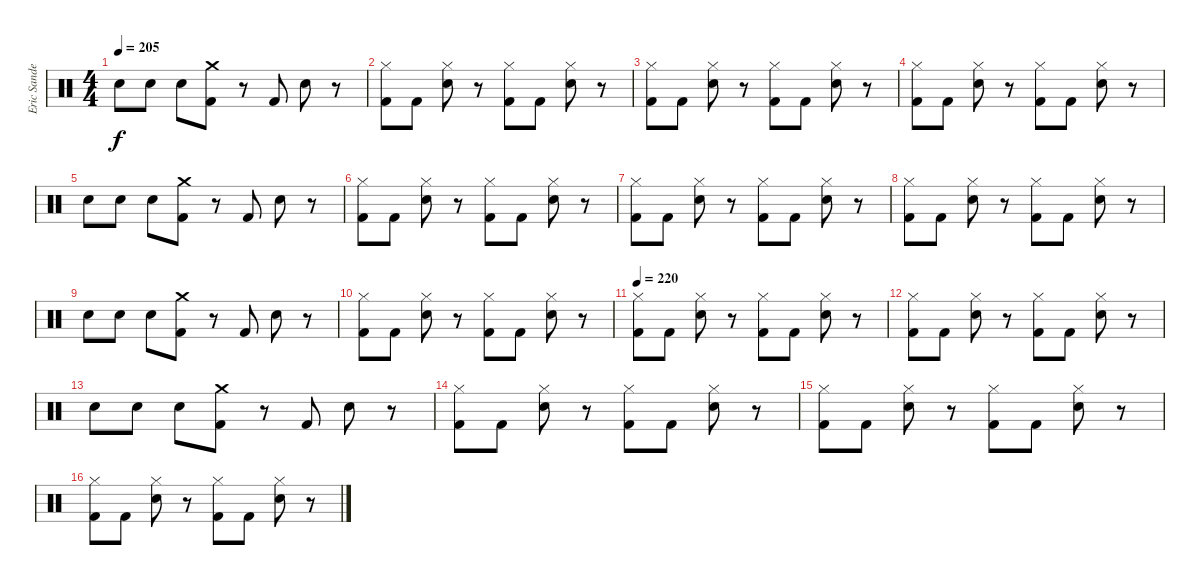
\track ("Eric Sanden" "Eric Sande") {instrument percussion}
\staff {score}
\articulation defaults
\ts (4 4)
\tempo 205
\tempo 220
\tempo 205
\clef neutral
\ks c "Snare (hit) 2".8{dy f} "Snare (hit) 2".8 "Snare (hit) 2".8
("Crash medium (hit)" "Kick (hit) 2").8 r.8 "Kick (hit) 2".8 "Snare (hit) 2".8 r.8 |
("Hi-Hat (closed)" "Kick (hit) 2").8 "Kick (hit) 2".8 ("Hi-Hat (closed)" "Snare (hit) 2").8 r.8 ("Hi-Hat (closed)" "Kick (hit) 2").8 "Kick (hit) 2".8 ("Hi-Hat (closed)" "Snare (hit) 2").8 r.8 |
("Hi-Hat (closed)" "Kick (hit) 2").8 "Kick (hit) 2".8 ("Hi-Hat (closed)" "Snare (hit) 2").8 r.8 ("Hi-Hat (closed)" "Kick (hit) 2").8 "Kick (hit) 2".8 ("Hi-Hat (closed)" "Snare (hit) 2").8 r.8 |
("Hi-Hat (closed)" "Kick (hit) 2").8 "Kick (hit) 2".8 ("Hi-Hat (closed)" "Snare (hit) 2").8 r.8 ("Hi-Hat (closed)" "Kick (hit) 2").8 "Kick (hit) 2".8 ("Hi-Hat (closed)" "Snare (hit) 2").8 r.8 |
"Snare (hit) 2".8 "Snare (hit) 2".8 "Snare (hit) 2".8 ("Crash medium (hit)" "Kick (hit) 2").8 r.8 "Kick (hit) 2".8 "Snare (hit) 2".8 r.8 |
("Hi-Hat (closed)" "Kick (hit) 2").8 "Kick (hit) 2".8 ("Hi-Hat (closed)" "Snare (hit) 2").8 r.8 ("Hi-Hat (closed)" "Kick (hit) 2").8 "Kick (hit) 2".8 ("Hi-Hat (closed)" "Snare (hit) 2").8 r.8 |
("Hi-Hat (closed)" "Kick (hit) 2").8 "Kick (hit) 2".8 ("Hi-Hat (closed)" "Snare (hit) 2").8 r.8 ("Hi-Hat (closed)" "Kick (hit) 2").8 "Kick (hit) 2".8 ("Hi-Hat (closed)" "Snare (hit) 2").8 r.8 |
("Hi-Hat (closed)" "Kick (hit) 2").8 "Kick (hit) 2".8 ("Hi-Hat (closed)" "Snare (hit) 2").8 r.8 ("Hi-Hat (closed)" "Kick (hit) 2").8 "Kick (hit) 2".8 ("Hi-Hat (closed)" "Snare (hit) 2").8 r.8 |
"Snare (hit) 2".8 "Snare (hit) 2".8 "Snare (hit) 2".8 ("Crash medium (hit)" "Kick (hit) 2").8 r.8 "Kick (hit) 2".8 "Snare (hit) 2".8 r.8 |
("Hi-Hat (closed)" "Kick (hit) 2").8 "Kick (hit) 2".8 ("Hi-Hat (closed)" "Snare (hit) 2").8 r.8 ("Hi-Hat (closed)" "Kick (hit) 2").8 "Kick (hit) 2".8 ("Hi-Hat (closed)" "Snare (hit) 2").8 r.8 |
\tempo 220
("Hi-Hat (closed)" "Kick (hit) 2").8 "Kick (hit) 2".8 ("Hi-Hat (closed)" "Snare (hit) 2").8 r.8 ("Hi-Hat (closed)" "Kick (hit) 2").8 "Kick (hit) 2".8 ("Hi-Hat (closed)" "Snare (hit) 2").8 r.8 |
("Hi-Hat (closed)" "Kick (hit) 2").8 "Kick (hit) 2".8 ("Hi-Hat (closed)" "Snare (hit) 2").8 r.8 ("Hi-Hat (closed)" "Kick (hit) 2").8 "Kick (hit) 2".8 ("Hi-Hat (closed)" "Snare (hit) 2").8 r.8 |
"Snare (hit) 2".8 "Snare (hit) 2".8 "Snare (hit) 2".8 ("Crash medium (hit)" "Kick (hit) 2").8 r.8 "Kick (hit) 2".8 "Snare (hit) 2".8 r.8 |
("Hi-Hat (closed)" "Kick (hit) 2").8 "Kick (hit) 2".8 ("Hi-Hat (closed)" "Snare (hit) 2").8 r.8 ("Hi-Hat (closed)" "Kick (hit) 2").8 "Kick (hit) 2".8 ("Hi-Hat (closed)" "Snare (hit) 2").8 r.8 |
("Hi-Hat (closed)" "Kick (hit) 2").8 "Kick (hit) 2".8 ("Hi-Hat (closed)" "Snare (hit) 2").8 r.8 ("Hi-Hat (closed)" "Kick (hit) 2").8 "Kick (hit) 2".8 ("Hi-Hat (closed)" "Snare (hit) 2").8 r.8 |
("Hi-Hat (closed)" "Kick (hit) 2").8 "Kick (hit) 2".8 ("Hi-Hat (closed)" "Snare (hit) 2").8 r.8 ("Hi-Hat (closed)" "Kick (hit) 2").8 "Kick (hit) 2".8 ("Hi-Hat (closed)" "Snare (hit) 2").8 r.8
